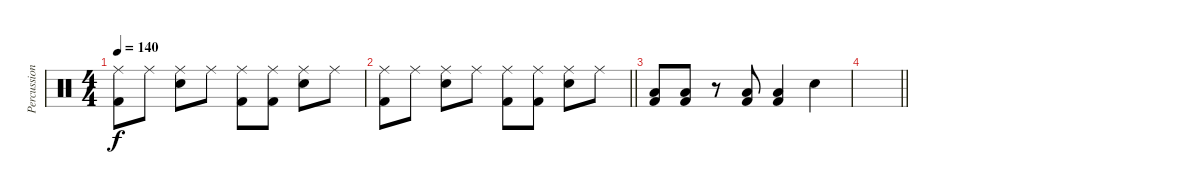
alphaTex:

\track ("Percussion" "Percussion") {instrument percussion}
\staff {score}
\articulation defaults
\ts (4 4)
\tempo 140
\clef neutral
\ks c
("Kick (hit) 2" "Ride (middle)").8{dy f} "Ride (middle)".8 ("Snare (hit) 2" "Ride (middle)").8 "Ride (middle)".8 ("Kick (hit) 2" "Ride (middle)").8 ("Kick (hit) 2" "Ride (middle)").8 ("Snare (hit) 2" "Ride (middle)").8 "Ride (middle)".8 |
\barLineRight lightlight
("Kick (hit) 2" "Ride (middle)").8 "Ride (middle)".8 ("Snare (hit) 2" "Ride (middle)").8 "Ride (middle)".8 ("Kick (hit) 2" "Ride (middle)").8 ("Kick (hit) 2" "Ride (middle)").8 ("Snare (hit) 2" "Ride (middle)").8 "Ride (middle)".8 |
("Low Tom (hit)" "Kick (hit) 2").8 ("Low Tom (hit)" "Kick (hit) 2").8 r.8 ("Low Tom (hit)" "Kick (hit) 2").8 ("Low Tom (hit)" "Kick (hit) 2").4 "Snare (hit) 2".4 |
\barLineRight lightlight
